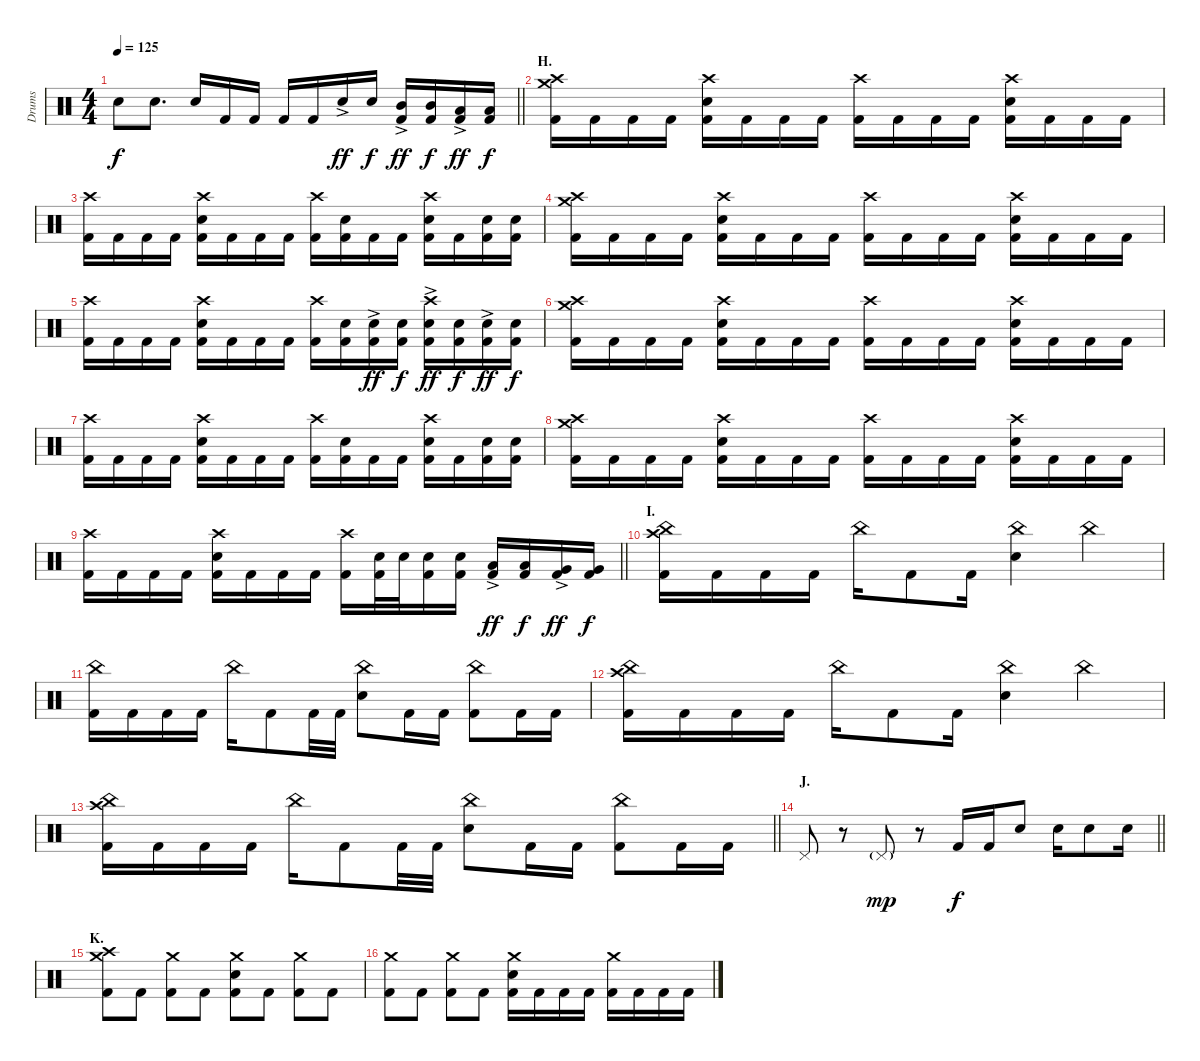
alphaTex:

\track ("Drums" "Drums") {instrument percussion}
\staff {score}
\articulation defaults
\ts (4 4)
\tempo 125
\clef neutral
\barLineRight lightlight
\ks c "Snare (hit)"{t}.8{dy f} "Electric Snare (hit)".8{d} "Electric Snare (hit)".16 "Kick (hit) 2".16 "Kick (hit) 2".16 "Kick (hit) 2".16 "Kick (hit) 2".16 "Electric Snare (hit)"{ac}.16{dy ff} "Electric Snare (hit)".16{dy f}
("Mid Tom (hit)"{ac} "Kick (hit) 2").16{dy ff} ("Mid Tom (hit)" "Kick (hit) 2").16{dy f} ("Low Tom (hit)"{ac} "Kick (hit) 2").16{dy ff} ("Low Tom (hit)" "Kick (hit) 2").16{dy f} |
\section ("" "H.")
("Crash medium (hit)" "Crash high (hit)" "Kick (hit) 2").16 "Kick (hit) 2".16 "Kick (hit) 2".16 "Kick (hit) 2".16 ("Crash high (hit)" "Electric Snare (hit)" "Kick (hit) 2").16 "Kick (hit) 2".16 "Kick (hit) 2".16 "Kick (hit) 2".16 ("Crash high (hit)" "Kick (hit) 2").16 "Kick (hit) 2".16 "Kick (hit) 2".16 "Kick (hit) 2".16 ("Crash high (hit)" "Electric Snare (hit)" "Kick (hit) 2").16 "Kick (hit) 2".16 "Kick (hit) 2".16 "Kick (hit) 2".16 |
("Crash high (hit)" "Kick (hit) 2").16 "Kick (hit) 2".16 "Kick (hit) 2".16 "Kick (hit) 2".16 ("Crash high (hit)" "Electric Snare (hit)" "Kick (hit) 2").16 "Kick (hit) 2".16 "Kick (hit) 2".16 "Kick (hit) 2".16 ("Crash high (hit)" "Kick (hit) 2").16 ("Electric Snare (hit)" "Kick (hit) 2").16 "Kick (hit) 2".16 "Kick (hit) 2".16 ("Crash high (hit)" "Electric Snare (hit)" "Kick (hit) 2").16 "Kick (hit) 2".16 ("Electric Snare (hit)" "Kick (hit) 2").16 ("Electric Snare (hit)" "Kick (hit) 2").16 |
("Crash medium (hit)" "Crash high (hit)" "Kick (hit) 2").16 "Kick (hit) 2".16 "Kick (hit) 2".16 "Kick (hit) 2".16 ("Crash high (hit)" "Electric Snare (hit)" "Kick (hit) 2").16 "Kick (hit) 2".16 "Kick (hit) 2".16 "Kick (hit) 2".16 ("Crash high (hit)" "Kick (hit) 2").16 "Kick (hit) 2".16 "Kick (hit) 2".16 "Kick (hit) 2".16 ("Crash high (hit)" "Electric Snare (hit)" "Kick (hit) 2").16 "Kick (hit) 2".16 "Kick (hit) 2".16 "Kick (hit) 2".16 |
("Crash high (hit)" "Kick (hit) 2").16 "Kick (hit) 2".16 "Kick (hit) 2".16 "Kick (hit) 2".16 ("Crash high (hit)" "Electric Snare (hit)" "Kick (hit) 2").16 "Kick (hit) 2".16 "Kick (hit) 2".16 "Kick (hit) 2".16 ("Crash high (hit)" "Kick (hit) 2").16 ("Electric Snare (hit)" "Kick (hit) 2").16 ("Electric Snare (hit)"{ac} "Kick (hit) 2").16{dy ff} ("Electric Snare (hit)" "Kick (hit) 2").16{dy f} ("Crash high (hit)" "Electric Snare (hit)"{ac} "Kick (hit) 2").16{dy ff} ("Electric Snare (hit)" "Kick (hit) 2").16{dy f} ("Electric Snare (hit)"{ac} "Kick (hit) 2").16{dy ff} ("Electric Snare (hit)" "Kick (hit) 2").16{dy f} |
("Crash medium (hit)" "Crash high (hit)" "Kick (hit) 2").16 "Kick (hit) 2".16 "Kick (hit) 2".16 "Kick (hit) 2".16 ("Crash high (hit)" "Electric Snare (hit)" "Kick (hit) 2").16 "Kick (hit) 2".16 "Kick (hit) 2".16 "Kick (hit) 2".16 ("Crash high (hit)" "Kick (hit) 2").16 "Kick (hit) 2".16 "Kick (hit) 2".16 "Kick (hit) 2".16 ("Crash high (hit)" "Electric Snare (hit)" "Kick (hit) 2").16 "Kick (hit) 2".16 "Kick (hit) 2".16 "Kick (hit) 2".16 |
("Crash high (hit)" "Kick (hit) 2").16 "Kick (hit) 2".16 "Kick (hit) 2".16 "Kick (hit) 2".16 ("Crash high (hit)" "Electric Snare (hit)" "Kick (hit) 2").16 "Kick (hit) 2".16 "Kick (hit) 2".16 "Kick (hit) 2".16 ("Crash high (hit)" "Kick (hit) 2").16 ("Electric Snare (hit)" "Kick (hit) 2").16 "Kick (hit) 2".16 "Kick (hit) 2".16 ("Crash high (hit)" "Electric Snare (hit)" "Kick (hit) 2").16 "Kick (hit) 2".16 ("Electric Snare (hit)" "Kick (hit) 2").16 ("Electric Snare (hit)" "Kick (hit) 2").16 |
("Crash medium (hit)" "Crash high (hit)" "Kick (hit) 2").16 "Kick (hit) 2".16 "Kick (hit) 2".16 "Kick (hit) 2".16 ("Crash high (hit)" "Electric Snare (hit)" "Kick (hit) 2").16 "Kick (hit) 2".16 "Kick (hit) 2".16 "Kick (hit) 2".16 ("Crash high (hit)" "Kick (hit) 2").16 "Kick (hit) 2".16 "Kick (hit) 2".16 "Kick (hit) 2".16 ("Crash high (hit)" "Electric Snare (hit)" "Kick (hit) 2").16 "Kick (hit) 2".16 "Kick (hit) 2".16 "Kick (hit) 2".16 |
\barLineRight lightlight
("Crash high (hit)" "Kick (hit) 2").16 "Kick (hit) 2".16 "Kick (hit) 2".16 "Kick (hit) 2".16 ("Crash high (hit)" "Electric Snare (hit)" "Kick (hit) 2").16 "Kick (hit) 2".16 "Kick (hit) 2".16 "Kick (hit) 2".16 ("Crash high (hit)" "Kick (hit) 2").16 ("Electric Snare (hit)" "Kick (hit) 2").32 "Electric Snare (hit)".32 ("Electric Snare (hit)" "Kick (hit) 2").16 ("Electric Snare (hit)" "Kick (hit) 2").16 ("Low Tom (hit)"{ac} "Kick (hit) 2").16{dy ff} ("Low Tom (hit)" "Kick (hit) 2").16{dy f} ("Very Low Tom (hit)"{ac} "Kick (hit) 2").16{dy ff} ("Very Low Tom (hit)" "Kick (hit) 2").16{dy f} |
\section ("" "I.")
("China (hit)" "Crash high (hit)" "Kick (hit) 2").16 "Kick (hit) 2".16 "Kick (hit) 2".16 "Kick (hit) 2".16 "China (hit)".16 "Kick (hit) 2".8 "Kick (hit) 2".16 ("China (hit)" "Electric Snare (hit)").4 "China (hit)".4 |
("China (hit)" "Kick (hit) 2").16 "Kick (hit) 2".16 "Kick (hit) 2".16 "Kick (hit) 2".16 "China (hit)".16 "Kick (hit) 2".8 "Kick (hit) 2".32 "Kick (hit) 2".32 ("China (hit)" "Electric Snare (hit)").8 "Kick (hit) 2".16 "Kick (hit) 2".16 ("China (hit)" "Kick (hit) 2").8 "Kick (hit) 2".16 "Kick (hit) 2".16 |
("China (hit)" "Crash high (hit)" "Kick (hit) 2").16 "Kick (hit) 2".16 "Kick (hit) 2".16 "Kick (hit) 2".16 "China (hit)".16 "Kick (hit) 2".8 "Kick (hit) 2".16 ("China (hit)" "Electric Snare (hit)").4 "China (hit)".4 |
\barLineRight lightlight
("China (hit)" "Crash high (hit)" "Kick (hit) 2").16 "Kick (hit) 2".16 "Kick (hit) 2".16 "Kick (hit) 2".16 "China (hit)".16 "Kick (hit) 2".8 "Kick (hit) 2".32 "Kick (hit) 2".32 ("China (hit)" "Electric Snare (hit)").8 "Kick (hit) 2".16 "Kick (hit) 2".16 ("China (hit)" "Kick (hit) 2").8 "Kick (hit) 2".16 "Kick (hit) 2".16 |
\section ("" "J.")
\barLineRight lightlight "Pedal Hi-Hat (hit)".8
r.8 "Pedal Hi-Hat (hit)"{g}.8{dy mp} r.8 "Kick (hit) 2".16{dy f} "Kick (hit) 2".16 "Electric Snare (hit)".8 "Electric Snare (hit)".16 "Electric Snare (hit)".8 "Electric Snare (hit)".16 |
\section ("" "K.")
("Crash medium (hit)" "Crash high (hit)" "Kick (hit) 2").8 "Kick (hit) 2".8 ("Crash medium (hit)" "Kick (hit) 2").8 "Kick (hit) 2".8 ("Crash medium (hit)" "Electric Snare (hit)" "Kick (hit) 2").8 "Kick (hit) 2".8 ("Crash medium (hit)" "Kick (hit) 2").8 "Kick (hit) 2".8 |
("Crash medium (hit)" "Kick (hit) 2").8 "Kick (hit) 2".8 ("Crash medium (hit)" "Kick (hit) 2").8 "Kick (hit) 2".8 ("Crash medium (hit)" "Electric Snare (hit)" "Kick (hit) 2").16 "Kick (hit) 2".16 "Kick (hit) 2".16 "Kick (hit) 2".16 ("Crash medium (hit)" "Kick (hit) 2").16 "Kick (hit) 2".16 "Kick (hit) 2".16 "Kick (hit) 2".16
